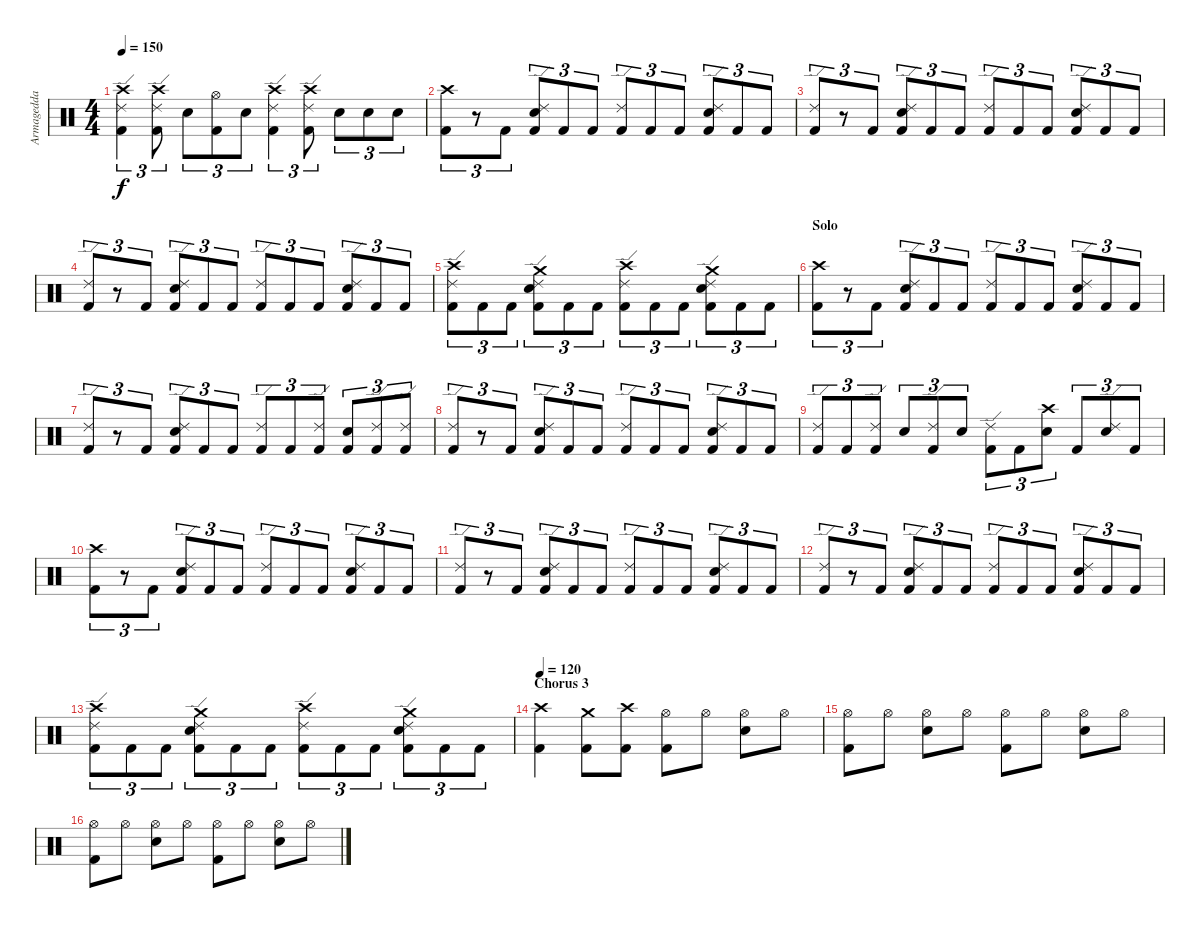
\track ("Armagedda" "Armagedda") {instrument percussion}
\staff {score}
\articulation defaults
\ts (4 4)
\tempo 150
\clef neutral
\ks c
("Crash high (hit)" "Ride (edge) 2" "Kick (hit) 2").4{tu (3 2) dy f} ("Crash high (hit)" "Ride (edge) 2" "Kick (hit) 2").8{tu (3 2)} "Electric Snare (hit)".8{tu (3 2)} ("Hi-Hat (open)" "Kick (hit) 2").8{tu (3 2)} "Electric Snare (hit)".8{tu (3 2)} ("Crash high (hit)" "Ride (edge) 2" "Kick (hit) 2").4{tu (3 2)} ("Crash high (hit)" "Ride (edge) 2" "Kick (hit) 2").8{tu (3 2)} "Electric Snare (hit)".8{tu (3 2)} "Electric Snare (hit)".8{tu (3 2)} "Electric Snare (hit)".8{tu (3 2)} |
("Crash high (hit)" "Kick (hit) 2").8{tu (3 2)} r.8{tu (3 2)} "Kick (hit) 2".8{tu (3 2)} ("Ride (edge) 2" "Electric Snare (hit)" "Kick (hit) 2").8{tu (3 2)} "Kick (hit) 2".8{tu (3 2)} "Kick (hit) 2".8{tu (3 2)} ("Ride (edge) 2" "Kick (hit) 2").8{tu (3 2)} "Kick (hit) 2".8{tu (3 2)} "Kick (hit) 2".8{tu (3 2)} ("Ride (edge) 2" "Electric Snare (hit)" "Kick (hit) 2").8{tu (3 2)} "Kick (hit) 2".8{tu (3 2)} "Kick (hit) 2".8{tu (3 2)} |
("Ride (edge) 2" "Kick (hit) 2").8{tu (3 2)} r.8{tu (3 2)} "Kick (hit) 2".8{tu (3 2)} ("Ride (edge) 2" "Electric Snare (hit)" "Kick (hit) 2").8{tu (3 2)} "Kick (hit) 2".8{tu (3 2)} "Kick (hit) 2".8{tu (3 2)} ("Ride (edge) 2" "Kick (hit) 2").8{tu (3 2)} "Kick (hit) 2".8{tu (3 2)} "Kick (hit) 2".8{tu (3 2)} ("Ride (edge) 2" "Electric Snare (hit)" "Kick (hit) 2").8{tu (3 2)} "Kick (hit) 2".8{tu (3 2)} "Kick (hit) 2".8{tu (3 2)} |
("Ride (edge) 2" "Kick (hit) 2").8{tu (3 2)} r.8{tu (3 2)} "Kick (hit) 2".8{tu (3 2)} ("Ride (edge) 2" "Electric Snare (hit)" "Kick (hit) 2").8{tu (3 2)} "Kick (hit) 2".8{tu (3 2)} "Kick (hit) 2".8{tu (3 2)} ("Ride (edge) 2" "Kick (hit) 2").8{tu (3 2)} "Kick (hit) 2".8{tu (3 2)} "Kick (hit) 2".8{tu (3 2)} ("Ride (edge) 2" "Electric Snare (hit)" "Kick (hit) 2").8{tu (3 2)} "Kick (hit) 2".8{tu (3 2)} "Kick (hit) 2".8{tu (3 2)} |
("Crash high (hit)" "Ride (edge) 2" "Kick (hit) 2").8{tu (3 2)} "Kick (hit) 2".8{tu (3 2)} "Kick (hit) 2".8{tu (3 2)} ("Crash medium (hit)" "Ride (edge) 2" "Electric Snare (hit)" "Kick (hit) 2").8{tu (3 2)} "Kick (hit) 2".8{tu (3 2)} "Kick (hit) 2".8{tu (3 2)} ("Crash high (hit)" "Ride (edge) 2" "Kick (hit) 2").8{tu (3 2)} "Kick (hit) 2".8{tu (3 2)} "Kick (hit) 2".8{tu (3 2)} ("Crash medium (hit)" "Ride (edge) 2" "Electric Snare (hit)" "Kick (hit) 2").8{tu (3 2)} "Kick (hit) 2".8{tu (3 2)} "Kick (hit) 2".8{tu (3 2)} |
\section ("" "Solo")
("Crash high (hit)" "Kick (hit) 2").8{tu (3 2)} r.8{tu (3 2)} "Kick (hit) 2".8{tu (3 2)} ("Ride (edge) 2" "Electric Snare (hit)" "Kick (hit) 2").8{tu (3 2)} "Kick (hit) 2".8{tu (3 2)} "Kick (hit) 2".8{tu (3 2)} ("Ride (edge) 2" "Kick (hit) 2").8{tu (3 2)} "Kick (hit) 2".8{tu (3 2)} "Kick (hit) 2".8{tu (3 2)} ("Ride (edge) 2" "Electric Snare (hit)" "Kick (hit) 2").8{tu (3 2)} "Kick (hit) 2".8{tu (3 2)} "Kick (hit) 2".8{tu (3 2)} |
("Ride (edge) 2" "Kick (hit) 2").8{tu (3 2)} r.8{tu (3 2)} "Kick (hit) 2".8{tu (3 2)} ("Ride (edge) 2" "Electric Snare (hit)" "Kick (hit) 2").8{tu (3 2)} "Kick (hit) 2".8{tu (3 2)} "Kick (hit) 2".8{tu (3 2)} ("Ride (edge) 2" "Kick (hit) 2").8{tu (3 2)} "Kick (hit) 2".8{tu (3 2)} ("Ride (edge) 2" "Kick (hit) 2").8{tu (3 2)} ("Electric Snare (hit)" "Kick (hit) 2").8{tu (3 2)} ("Ride (edge) 2" "Kick (hit) 2").8{tu (3 2)} ("Ride (edge) 2" "Kick (hit) 2").8{tu (3 2)} |
("Ride (edge) 2" "Kick (hit) 2").8{tu (3 2)} r.8{tu (3 2)} "Kick (hit) 2".8{tu (3 2)} ("Ride (edge) 2" "Electric Snare (hit)" "Kick (hit) 2").8{tu (3 2)} "Kick (hit) 2".8{tu (3 2)} "Kick (hit) 2".8{tu (3 2)} ("Ride (edge) 2" "Kick (hit) 2").8{tu (3 2)} "Kick (hit) 2".8{tu (3 2)} "Kick (hit) 2".8{tu (3 2)} ("Ride (edge) 2" "Electric Snare (hit)" "Kick (hit) 2").8{tu (3 2)} "Kick (hit) 2".8{tu (3 2)} "Kick (hit) 2".8{tu (3 2)} |
("Ride (edge) 2" "Kick (hit) 2").8{tu (3 2)} "Kick (hit) 2".8{tu (3 2)} ("Ride (edge) 2" "Kick (hit) 2").8{tu (3 2)} "Electric Snare (hit)".8{tu (3 2)} ("Ride (edge) 2" "Kick (hit) 2").8{tu (3 2)} "Electric Snare (hit)".8{tu (3 2)} ("Ride (edge) 2" "Kick (hit) 2").8{tu (3 2)} "Kick (hit) 2".8{tu (3 2)} ("Crash high (hit)" "Electric Snare (hit)").8{tu (3 2)} "Kick (hit) 2".8{tu (3 2)} ("Ride (edge) 2" "Electric Snare (hit)").8{tu (3 2)} "Kick (hit) 2".8{tu (3 2)} |
("Crash high (hit)" "Kick (hit) 2").8{tu (3 2)} r.8{tu (3 2)} "Kick (hit) 2".8{tu (3 2)} ("Ride (edge) 2" "Electric Snare (hit)" "Kick (hit) 2").8{tu (3 2)} "Kick (hit) 2".8{tu (3 2)} "Kick (hit) 2".8{tu (3 2)} ("Ride (edge) 2" "Kick (hit) 2").8{tu (3 2)} "Kick (hit) 2".8{tu (3 2)} "Kick (hit) 2".8{tu (3 2)} ("Ride (edge) 2" "Electric Snare (hit)" "Kick (hit) 2").8{tu (3 2)} "Kick (hit) 2".8{tu (3 2)} "Kick (hit) 2".8{tu (3 2)} |
("Ride (edge) 2" "Kick (hit) 2").8{tu (3 2)} r.8{tu (3 2)} "Kick (hit) 2".8{tu (3 2)} ("Ride (edge) 2" "Electric Snare (hit)" "Kick (hit) 2").8{tu (3 2)} "Kick (hit) 2".8{tu (3 2)} "Kick (hit) 2".8{tu (3 2)} ("Ride (edge) 2" "Kick (hit) 2").8{tu (3 2)} "Kick (hit) 2".8{tu (3 2)} "Kick (hit) 2".8{tu (3 2)} ("Ride (edge) 2" "Electric Snare (hit)" "Kick (hit) 2").8{tu (3 2)} "Kick (hit) 2".8{tu (3 2)} "Kick (hit) 2".8{tu (3 2)} |
("Ride (edge) 2" "Kick (hit) 2").8{tu (3 2)} r.8{tu (3 2)} "Kick (hit) 2".8{tu (3 2)} ("Ride (edge) 2" "Electric Snare (hit)" "Kick (hit) 2").8{tu (3 2)} "Kick (hit) 2".8{tu (3 2)} "Kick (hit) 2".8{tu (3 2)} ("Ride (edge) 2" "Kick (hit) 2").8{tu (3 2)} "Kick (hit) 2".8{tu (3 2)} "Kick (hit) 2".8{tu (3 2)} ("Ride (edge) 2" "Electric Snare (hit)" "Kick (hit) 2").8{tu (3 2)} "Kick (hit) 2".8{tu (3 2)} "Kick (hit) 2".8{tu (3 2)} |
("Crash high (hit)" "Ride (edge) 2" "Kick (hit) 2").8{tu (3 2)} "Kick (hit) 2".8{tu (3 2)} "Kick (hit) 2".8{tu (3 2)} ("Crash medium (hit)" "Ride (edge) 2" "Electric Snare (hit)" "Kick (hit) 2").8{tu (3 2)} "Kick (hit) 2".8{tu (3 2)} "Kick (hit) 2".8{tu (3 2)} ("Crash high (hit)" "Ride (edge) 2" "Kick (hit) 2").8{tu (3 2)} "Kick (hit) 2".8{tu (3 2)} "Kick (hit) 2".8{tu (3 2)} ("Crash medium (hit)" "Ride (edge) 2" "Electric Snare (hit)" "Kick (hit) 2").8{tu (3 2)} "Kick (hit) 2".8{tu (3 2)} "Kick (hit) 2".8{tu (3 2)} |
\section ("" "Chorus 3")
\tempo 120
("Crash high (hit)" "Kick (hit) 2").4 ("Crash medium (hit)" "Kick (hit) 2").8 ("Crash high (hit)" "Kick (hit) 2").8 ("Hi-Hat (open)" "Kick (hit) 2").8 "Hi-Hat (open)".8 ("Hi-Hat (open)" "Electric Snare (hit)").8 "Hi-Hat (open)".8 |
("Hi-Hat (open)" "Kick (hit) 2").8 "Hi-Hat (open)".8 ("Hi-Hat (open)" "Electric Snare (hit)").8 "Hi-Hat (open)".8 ("Hi-Hat (open)" "Kick (hit) 2").8 "Hi-Hat (open)".8 ("Hi-Hat (open)" "Electric Snare (hit)").8 "Hi-Hat (open)".8 |
("Hi-Hat (open)" "Kick (hit) 2").8 "Hi-Hat (open)".8 ("Hi-Hat (open)" "Electric Snare (hit)").8 "Hi-Hat (open)".8 ("Hi-Hat (open)" "Kick (hit) 2").8 "Hi-Hat (open)".8 ("Hi-Hat (open)" "Electric Snare (hit)").8 "Hi-Hat (open)".8
